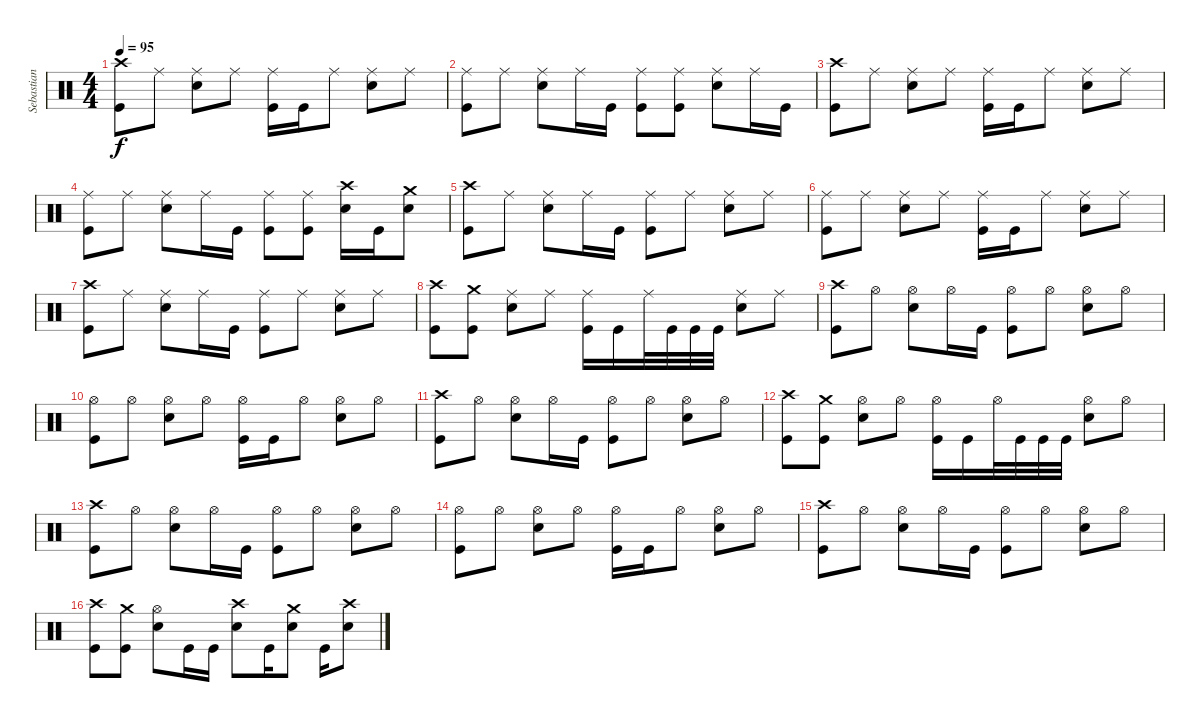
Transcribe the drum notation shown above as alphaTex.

\track ("Sebastian" "Sebastian") {instrument percussion}
\staff {score}
\articulation defaults
\ts (4 4)
\tempo 95
\clef neutral
\ks c
("Kick (hit)" "Crash high (hit)").8{dy f} "Ride (middle)".8 ("Snare (hit) 2" "Ride (middle)").8 "Ride (middle)".8 ("Kick (hit)" "Ride (middle)").16 "Kick (hit)".16 "Ride (middle)".8 ("Snare (hit) 2" "Ride (middle)").8 "Ride (middle)".8 |
("Kick (hit)" "Ride (middle)").8 "Ride (middle)".8 ("Snare (hit) 2" "Ride (middle)").8 "Ride (middle)".16 "Kick (hit)".16 ("Kick (hit)" "Ride (middle)").8 ("Kick (hit)" "Ride (middle)").8 ("Snare (hit) 2" "Ride (middle)").8 "Ride (middle)".16 "Kick (hit)".16 |
("Kick (hit)" "Crash high (hit)").8 "Ride (middle)".8 ("Snare (hit) 2" "Ride (middle)").8 "Ride (middle)".8 ("Kick (hit)" "Ride (middle)").16 "Kick (hit)".16 "Ride (middle)".8 ("Snare (hit) 2" "Ride (middle)").8 "Ride (middle)".8 |
("Kick (hit)" "Ride (middle)").8 "Ride (middle)".8 ("Snare (hit) 2" "Ride (middle)").8 "Ride (middle)".16 "Kick (hit)".16 ("Kick (hit)" "Ride (middle)").8 ("Kick (hit)" "Ride (middle)").8 ("Snare (hit) 2" "Crash high (hit)").16 "Kick (hit)".16 ("Snare (hit) 2" "Crash medium (hit)").8 |
("Kick (hit)" "Crash high (hit)").8 "Ride (middle)".8 ("Snare (hit) 2" "Ride (middle)").8 "Ride (middle)".16 "Kick (hit)".16 ("Kick (hit)" "Ride (middle)").8 "Ride (middle)".8 ("Snare (hit) 2" "Ride (middle)").8 "Ride (middle)".8 |
("Kick (hit)" "Ride (middle)").8 "Ride (middle)".8 ("Snare (hit) 2" "Ride (middle)").8 "Ride (middle)".8 ("Kick (hit)" "Ride (middle)").16 "Kick (hit)".16 "Ride (middle)".8 ("Snare (hit) 2" "Ride (middle)").8 "Ride (middle)".8 |
("Kick (hit)" "Crash high (hit)").8 "Ride (middle)".8 ("Snare (hit) 2" "Ride (middle)").8 "Ride (middle)".16 "Kick (hit)".16 ("Kick (hit)" "Ride (middle)").8 "Ride (middle)".8 ("Snare (hit) 2" "Ride (middle)").8 "Ride (middle)".8 |
("Kick (hit)" "Crash high (hit)").8 ("Kick (hit)" "Crash medium (hit)").8 ("Snare (hit) 2" "Ride (middle)").8 "Ride (middle)".8 ("Kick (hit)" "Ride (middle)").16 "Kick (hit)".16 "Ride (middle)".32 "Kick (hit)".32 "Kick (hit)".32 "Kick (hit)".32 ("Snare (hit) 2" "Ride (middle)").8 "Ride (middle)".8 |
("Kick (hit)" "Crash high (hit)").8 "Hi-Hat (open)".8 ("Snare (hit) 2" "Hi-Hat (open)").8 "Hi-Hat (open)".16 "Kick (hit)".16 ("Kick (hit)" "Hi-Hat (open)").8 "Hi-Hat (open)".8 ("Snare (hit) 2" "Hi-Hat (open)").8 "Hi-Hat (open)".8 |
("Kick (hit)" "Hi-Hat (open)").8 "Hi-Hat (open)".8 ("Snare (hit) 2" "Hi-Hat (open)").8 "Hi-Hat (open)".8 ("Kick (hit)" "Hi-Hat (open)").16 "Kick (hit)".16 "Hi-Hat (open)".8 ("Snare (hit) 2" "Hi-Hat (open)").8 "Hi-Hat (open)".8 |
("Kick (hit)" "Crash high (hit)").8 "Hi-Hat (open)".8 ("Snare (hit) 2" "Hi-Hat (open)").8 "Hi-Hat (open)".16 "Kick (hit)".16 ("Kick (hit)" "Hi-Hat (open)").8 "Hi-Hat (open)".8 ("Snare (hit) 2" "Hi-Hat (open)").8 "Hi-Hat (open)".8 |
("Kick (hit)" "Crash high (hit)").8 ("Kick (hit)" "Crash medium (hit)").8 ("Snare (hit) 2" "Hi-Hat (open)").8 "Hi-Hat (open)".8 ("Kick (hit)" "Hi-Hat (open)").16 "Kick (hit)".16 "Hi-Hat (open)".32 "Kick (hit)".32 "Kick (hit)".32 "Kick (hit)".32 ("Snare (hit) 2" "Hi-Hat (open)").8 "Hi-Hat (open)".8 |
("Kick (hit)" "Crash high (hit)").8 "Hi-Hat (open)".8 ("Snare (hit) 2" "Hi-Hat (open)").8 "Hi-Hat (open)".16 "Kick (hit)".16 ("Kick (hit)" "Hi-Hat (open)").8 "Hi-Hat (open)".8 ("Snare (hit) 2" "Hi-Hat (open)").8 "Hi-Hat (open)".8 |
("Kick (hit)" "Hi-Hat (open)").8 "Hi-Hat (open)".8 ("Snare (hit) 2" "Hi-Hat (open)").8 "Hi-Hat (open)".8 ("Kick (hit)" "Hi-Hat (open)").16 "Kick (hit)".16 "Hi-Hat (open)".8 ("Snare (hit) 2" "Hi-Hat (open)").8 "Hi-Hat (open)".8 |
("Kick (hit)" "Crash high (hit)").8 "Hi-Hat (open)".8 ("Snare (hit) 2" "Hi-Hat (open)").8 "Hi-Hat (open)".16 "Kick (hit)".16 ("Kick (hit)" "Hi-Hat (open)").8 "Hi-Hat (open)".8 ("Snare (hit) 2" "Hi-Hat (open)").8 "Hi-Hat (open)".8 |
("Kick (hit)" "Crash high (hit)").8 ("Kick (hit)" "Crash medium (hit)").8 ("Snare (hit) 2" "Hi-Hat (open)").8 "Kick (hit)".16 "Kick (hit)".16 ("Snare (hit) 2" "Crash high (hit)").8 "Kick (hit)".16 ("Snare (hit) 2" "Crash medium (hit)").8 "Kick (hit)".16 ("Snare (hit) 2" "Crash high (hit)").8
